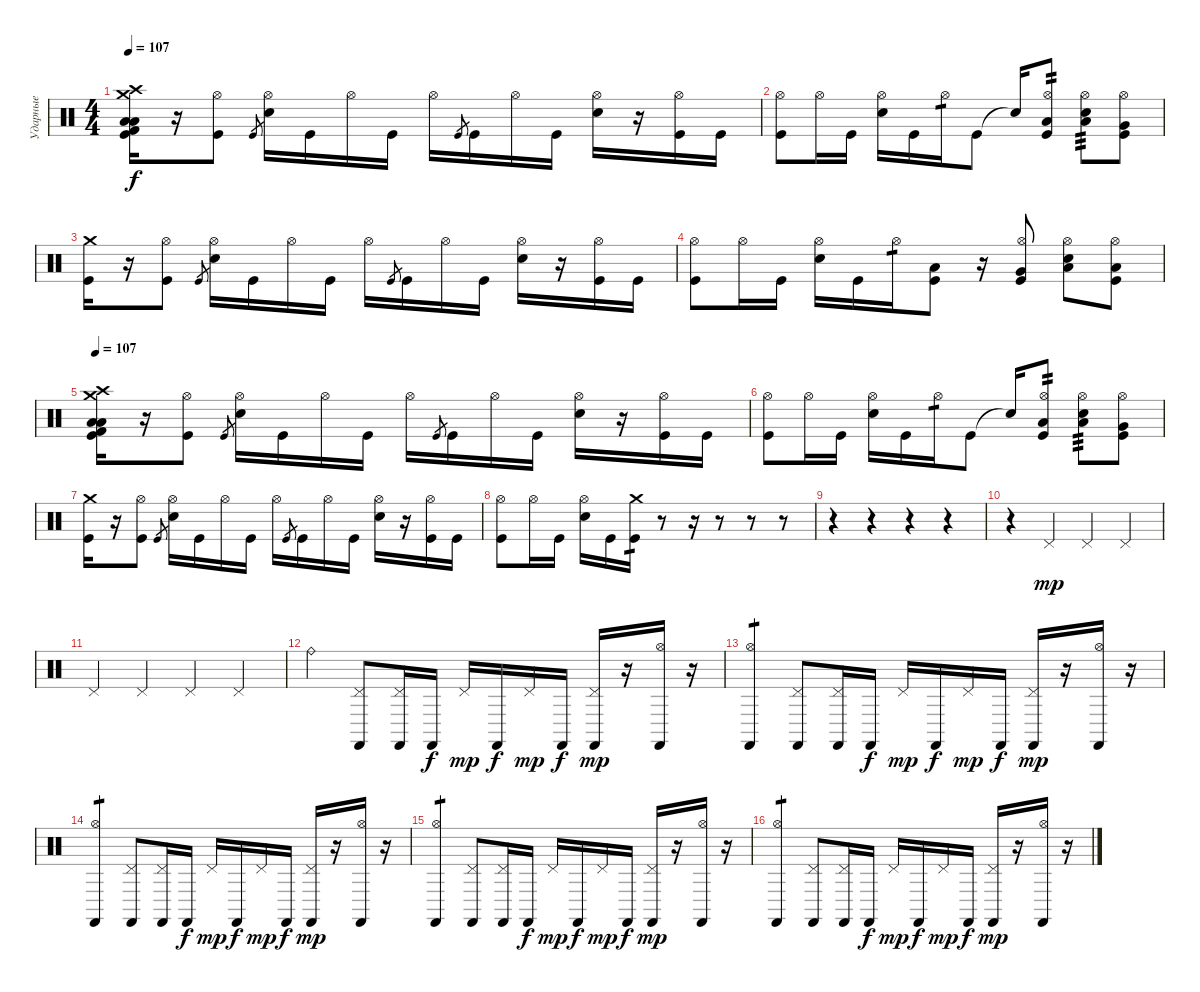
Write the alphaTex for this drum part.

\track ("Ударные" "Ударные") {instrument percussion}
\staff {score}
\articulation defaults
\ts (4 4)
\tempo 107
\clef neutral
\ks c
("Crash medium (hit)" "Crash high (hit)" "Low Floor Tom (hit)" "Low Floor Tom (hit)" "Kick (hit)" "Kick (hit) 2").16{dy f} r.16 ("Hi-Hat (open)" "Kick (hit)").8 "Kick (hit)".8{gr} ("Hi-Hat (open)" "Electric Snare (hit)").16 "Kick (hit)".16 "Hi-Hat (open)".16 "Kick (hit)".16 "Hi-Hat (open)".16 "Kick (hit)".8{gr} "Kick (hit)".16 "Hi-Hat (open)".16 "Kick (hit)".16 ("Hi-Hat (open)" "Electric Snare (hit)").16 r.16 ("Hi-Hat (open)" "Kick (hit)").16 "Kick (hit)".16 |
("Hi-Hat (open)" "Kick (hit)").8 "Hi-Hat (open)".16 "Kick (hit)".16 ("Hi-Hat (open)" "Electric Snare (hit)").16 "Kick (hit)".16 "Hi-Hat (open)".16{tp 1} "Kick (hit)".8 "Snare (hit)"{t}.16 ("Low Tom (hit)" "Hi-Hat (open)" "Kick (hit)").8{tp 2} ("Low Tom (hit)" "Hi-Hat (open)" "Electric Snare (hit)").8{tp 3} ("Very Low Tom (hit)" "Hi-Hat (open)" "Kick (hit)").8 |
("Crash medium (hit)" "Kick (hit)").16 r.16 ("Hi-Hat (open)" "Kick (hit)").8 "Kick (hit)".8{gr} ("Hi-Hat (open)" "Electric Snare (hit)").16 "Kick (hit)".16 "Hi-Hat (open)".16 "Kick (hit)".16 "Hi-Hat (open)".16 "Kick (hit)".8{gr} "Kick (hit)".16 "Hi-Hat (open)".16 "Kick (hit)".16 ("Hi-Hat (open)" "Electric Snare (hit)").16 r.16 ("Hi-Hat (open)" "Kick (hit)").16 "Kick (hit)".16 |
("Hi-Hat (open)" "Kick (hit)").8 "Hi-Hat (open)".16 "Kick (hit)".16 ("Hi-Hat (open)" "Electric Snare (hit)").16 "Kick (hit)".16 "Hi-Hat (open)".16{tp 1} ("Low Tom (hit)" "Kick (hit)").8 r.16 ("Very Low Tom (hit)" "Hi-Hat (open)" "Kick (hit)").8 ("Low Floor Tom (hit)" "Hi-Hat (open)" "Electric Snare (hit)").8 ("Low Floor Tom (hit)" "Hi-Hat (open)" "Kick (hit)").8 |
\tempo 107
("Crash medium (hit)" "Crash high (hit)" "Low Floor Tom (hit)" "Low Floor Tom (hit)" "Kick (hit)" "Kick (hit) 2").16 r.16 ("Hi-Hat (open)" "Kick (hit)").8 "Kick (hit)".8{gr} ("Hi-Hat (open)" "Electric Snare (hit)").16 "Kick (hit)".16 "Hi-Hat (open)".16 "Kick (hit)".16 "Hi-Hat (open)".16 "Kick (hit)".8{gr} "Kick (hit)".16 "Hi-Hat (open)".16 "Kick (hit)".16 ("Hi-Hat (open)" "Electric Snare (hit)").16 r.16 ("Hi-Hat (open)" "Kick (hit)").16 "Kick (hit)".16 |
("Hi-Hat (open)" "Kick (hit)").8 "Hi-Hat (open)".16 "Kick (hit)".16 ("Hi-Hat (open)" "Electric Snare (hit)").16 "Kick (hit)".16 "Hi-Hat (open)".16{tp 1} "Kick (hit)".8 "Snare (hit)"{t}.16 ("Low Tom (hit)" "Hi-Hat (open)" "Kick (hit)").8{tp 2} ("Low Tom (hit)" "Hi-Hat (open)" "Electric Snare (hit)").8{tp 3} ("Very Low Tom (hit)" "Hi-Hat (open)" "Kick (hit)").8 |
("Crash medium (hit)" "Kick (hit)").16 r.16 ("Hi-Hat (open)" "Kick (hit)").8 "Kick (hit)".8{gr} ("Hi-Hat (open)" "Electric Snare (hit)").16 "Kick (hit)".16 "Hi-Hat (open)".16 "Kick (hit)".16 "Hi-Hat (open)".16 "Kick (hit)".8{gr} "Kick (hit)".16 "Hi-Hat (open)".16 "Kick (hit)".16 ("Hi-Hat (open)" "Electric Snare (hit)").16 r.16 ("Hi-Hat (open)" "Kick (hit)").16 "Kick (hit)".16 |
("Hi-Hat (open)" "Kick (hit)").8 "Hi-Hat (open)".16 "Kick (hit)".16 ("Hi-Hat (open)" "Electric Snare (hit)").16 "Kick (hit)".16 ("Crash medium (hit)" "Kick (hit)").16{tp 1} r.8 r.16 r.8 r.8 r.8 |
r.4 r.4 r.4 r.4 |
r.4 "Pedal Hi-Hat (hit)".4{dy mp} "Pedal Hi-Hat (hit)".4 "Pedal Hi-Hat (hit)".4 |
"Pedal Hi-Hat (hit)".4 "Pedal Hi-Hat (hit)".4 "Pedal Hi-Hat (hit)".4 "Pedal Hi-Hat (hit)".4 |
"Ride (bell)".4 ("Pedal Hi-Hat (hit)" "Castanets (hit)").8 ("Pedal Hi-Hat (hit)" "Castanets (hit)").16 "Castanets (hit)".16{dy f} "Pedal Hi-Hat (hit)".16{dy mp} "Castanets (hit)".16{dy f} "Pedal Hi-Hat (hit)".16{dy mp} "Castanets (hit)".16{dy f} ("Pedal Hi-Hat (hit)" "Castanets (hit)").16{dy mp} r.16 ("Hi-Hat (open)" "Castanets (hit)").16 r.16 |
("Hi-Hat (open)" "Castanets (hit)").4{tp 1} ("Pedal Hi-Hat (hit)" "Castanets (hit)").8 ("Pedal Hi-Hat (hit)" "Castanets (hit)").16 "Castanets (hit)".16{dy f} "Pedal Hi-Hat (hit)".16{dy mp} "Castanets (hit)".16{dy f} "Pedal Hi-Hat (hit)".16{dy mp} "Castanets (hit)".16{dy f} ("Pedal Hi-Hat (hit)" "Castanets (hit)").16{dy mp} r.16 ("Hi-Hat (open)" "Castanets (hit)").16 r.16 |
("Hi-Hat (open)" "Castanets (hit)").4{tp 1} ("Pedal Hi-Hat (hit)" "Castanets (hit)").8 ("Pedal Hi-Hat (hit)" "Castanets (hit)").16 "Castanets (hit)".16{dy f} "Pedal Hi-Hat (hit)".16{dy mp} "Castanets (hit)".16{dy f} "Pedal Hi-Hat (hit)".16{dy mp} "Castanets (hit)".16{dy f} ("Pedal Hi-Hat (hit)" "Castanets (hit)").16{dy mp} r.16 ("Hi-Hat (open)" "Castanets (hit)").16 r.16 |
("Hi-Hat (open)" "Castanets (hit)").4{tp 1} ("Pedal Hi-Hat (hit)" "Castanets (hit)").8 ("Pedal Hi-Hat (hit)" "Castanets (hit)").16 "Castanets (hit)".16{dy f} "Pedal Hi-Hat (hit)".16{dy mp} "Castanets (hit)".16{dy f} "Pedal Hi-Hat (hit)".16{dy mp} "Castanets (hit)".16{dy f} ("Pedal Hi-Hat (hit)" "Castanets (hit)").16{dy mp} r.16 ("Hi-Hat (open)" "Castanets (hit)").16 r.16 |
("Hi-Hat (open)" "Castanets (hit)").4{tp 1} ("Pedal Hi-Hat (hit)" "Castanets (hit)").8 ("Pedal Hi-Hat (hit)" "Castanets (hit)").16 "Castanets (hit)".16{dy f} "Pedal Hi-Hat (hit)".16{dy mp} "Castanets (hit)".16{dy f} "Pedal Hi-Hat (hit)".16{dy mp} "Castanets (hit)".16{dy f} ("Pedal Hi-Hat (hit)" "Castanets (hit)").16{dy mp} r.16 ("Hi-Hat (open)" "Castanets (hit)").16 r.16
